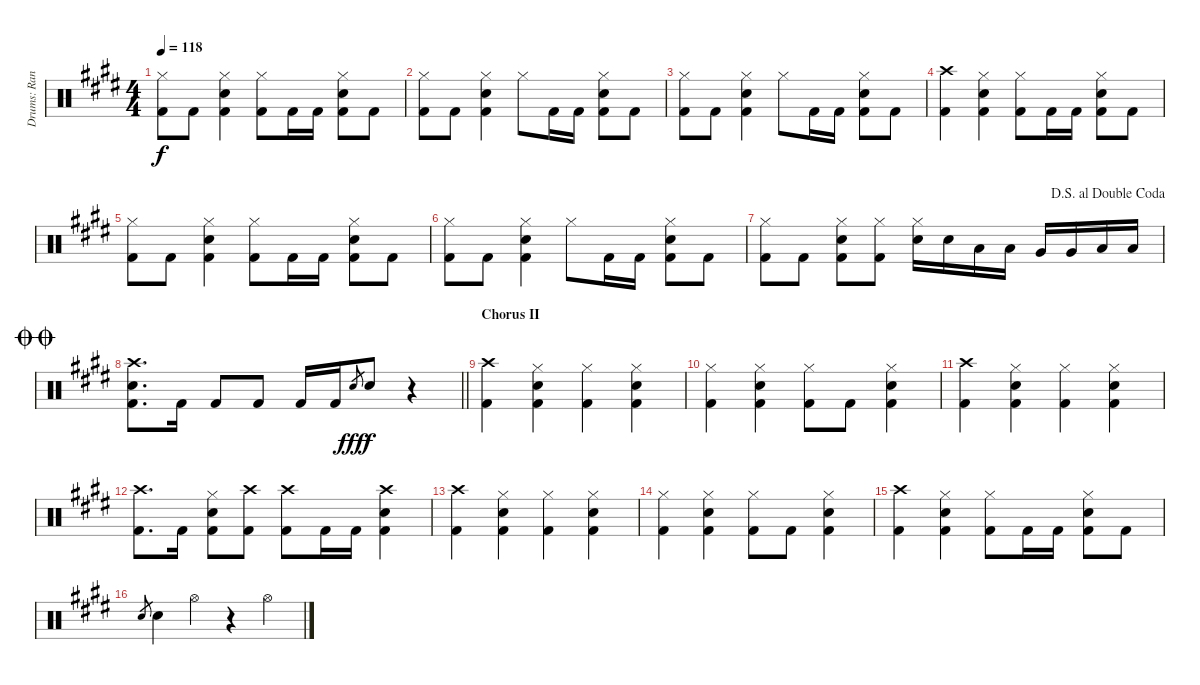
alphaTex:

\track ("Drums: Randy" "Drums: Ran") {instrument percussion}
\staff {score}
\articulation defaults
\ts (4 4)
\tempo 118
\clef neutral
\ks e
("Hi-Hat (closed)" "Kick (hit) 2").8{dy f} "Kick (hit) 2".8 ("Hi-Hat (closed)" "Snare (hit) 2" "Kick (hit) 2").4 ("Hi-Hat (closed)" "Kick (hit) 2").8 "Kick (hit) 2".16 "Kick (hit) 2".16 ("Hi-Hat (closed)" "Snare (hit) 2" "Kick (hit) 2").8 "Kick (hit) 2".8 |
("Hi-Hat (closed)" "Kick (hit) 2").8 "Kick (hit) 2".8 ("Hi-Hat (closed)" "Snare (hit) 2" "Kick (hit) 2").4 "Hi-Hat (closed)".8 "Kick (hit) 2".16 "Kick (hit) 2".16 ("Hi-Hat (closed)" "Snare (hit) 2" "Kick (hit) 2").8 "Kick (hit) 2".8 |
("Hi-Hat (closed)" "Kick (hit) 2").8 "Kick (hit) 2".8 ("Hi-Hat (closed)" "Snare (hit) 2" "Kick (hit) 2").4 "Hi-Hat (closed)".8 "Kick (hit) 2".16 "Kick (hit) 2".16 ("Hi-Hat (closed)" "Snare (hit) 2" "Kick (hit) 2").8 "Kick (hit) 2".8 |
("Crash high (hit)" "Kick (hit) 2").4 ("Hi-Hat (closed)" "Snare (hit) 2" "Kick (hit) 2").4 ("Hi-Hat (closed)" "Kick (hit) 2").8 "Kick (hit) 2".16 "Kick (hit) 2".16 ("Hi-Hat (closed)" "Snare (hit) 2" "Kick (hit) 2").8 "Kick (hit) 2".8 |
("Hi-Hat (closed)" "Kick (hit) 2").8 "Kick (hit) 2".8 ("Hi-Hat (closed)" "Snare (hit) 2" "Kick (hit) 2").4 ("Hi-Hat (closed)" "Kick (hit) 2").8 "Kick (hit) 2".16 "Kick (hit) 2".16 ("Hi-Hat (closed)" "Snare (hit) 2" "Kick (hit) 2").8 "Kick (hit) 2".8 |
("Hi-Hat (closed)" "Kick (hit) 2").8 "Kick (hit) 2".8 ("Hi-Hat (closed)" "Snare (hit) 2" "Kick (hit) 2").4 "Hi-Hat (closed)".8 "Kick (hit) 2".16 "Kick (hit) 2".16 ("Hi-Hat (closed)" "Snare (hit) 2" "Kick (hit) 2").8 "Kick (hit) 2".8 |
\jump dalsegnoaldoublecoda
("Hi-Hat (closed)" "Kick (hit) 2").8 "Kick (hit) 2".8 ("Hi-Hat (closed)" "Snare (hit) 2" "Kick (hit) 2").8 ("Hi-Hat (closed)" "Kick (hit) 2").8 ("Hi-Hat (closed)" "Snare (hit) 2").16 "Snare (hit) 2".16 "Low Tom (hit)".16 "Low Tom (hit)".16 "Very Low Tom (hit)".16 "Very Low Tom (hit)".16 "Low Tom (hit)".16 "Low Tom (hit)".16 |
\jump doublecoda
\barLineRight lightlight
("Crash high (hit)" "Snare (hit) 2" "Kick (hit) 2").8{d} "Kick (hit) 2".16 "Kick (hit) 2".8 "Kick (hit) 2".8 "Kick (hit) 2".16 "Kick (hit) 2".16 "Snare (hit) 2".8{gr dy fff} "Snare (hit) 2".8{dy f} r.4 |
\section ("" "Chorus II")
("Crash high (hit)" "Kick (hit) 2").4 ("Hi-Hat (closed)" "Snare (hit) 2" "Kick (hit) 2").4 ("Hi-Hat (closed)" "Kick (hit) 2").4 ("Hi-Hat (closed)" "Snare (hit) 2" "Kick (hit) 2").4 |
("Hi-Hat (closed)" "Kick (hit) 2").4 ("Hi-Hat (closed)" "Snare (hit) 2" "Kick (hit) 2").4 ("Hi-Hat (closed)" "Kick (hit) 2").8 "Kick (hit) 2".8 ("Hi-Hat (closed)" "Snare (hit) 2" "Kick (hit) 2").4 |
("Crash high (hit)" "Kick (hit) 2").4 ("Hi-Hat (closed)" "Snare (hit) 2" "Kick (hit) 2").4 ("Hi-Hat (closed)" "Kick (hit) 2").4 ("Hi-Hat (closed)" "Snare (hit) 2" "Kick (hit) 2").4 |
("Crash high (hit)" "Kick (hit) 2").8{d} "Kick (hit) 2".16 ("Hi-Hat (closed)" "Snare (hit) 2" "Kick (hit) 2").8 ("Crash high (hit)" "Kick (hit) 2").8 ("Crash high (hit)" "Kick (hit) 2").8 "Kick (hit) 2".16 "Kick (hit) 2".16 ("Crash high (hit)" "Snare (hit) 2" "Kick (hit) 2").4 |
("Crash high (hit)" "Kick (hit) 2").4 ("Hi-Hat (closed)" "Snare (hit) 2" "Kick (hit) 2").4 ("Hi-Hat (closed)" "Kick (hit) 2").4 ("Hi-Hat (closed)" "Snare (hit) 2" "Kick (hit) 2").4 |
("Hi-Hat (closed)" "Kick (hit) 2").4 ("Hi-Hat (closed)" "Snare (hit) 2" "Kick (hit) 2").4 ("Hi-Hat (closed)" "Kick (hit) 2").8 "Kick (hit) 2".8 ("Hi-Hat (closed)" "Snare (hit) 2" "Kick (hit) 2").4 |
("Crash high (hit)" "Kick (hit) 2").4 ("Hi-Hat (closed)" "Snare (hit) 2" "Kick (hit) 2").4 ("Hi-Hat (closed)" "Kick (hit) 2").8 "Kick (hit) 2".16 "Kick (hit) 2".16 ("Hi-Hat (closed)" "Snare (hit) 2" "Kick (hit) 2").8 "Kick (hit) 2".8 |
"Snare (hit) 2".8{gr} "Snare (hit) 2".4 "Hi-Hat (open)".4 r.4 "Hi-Hat (open)".4
